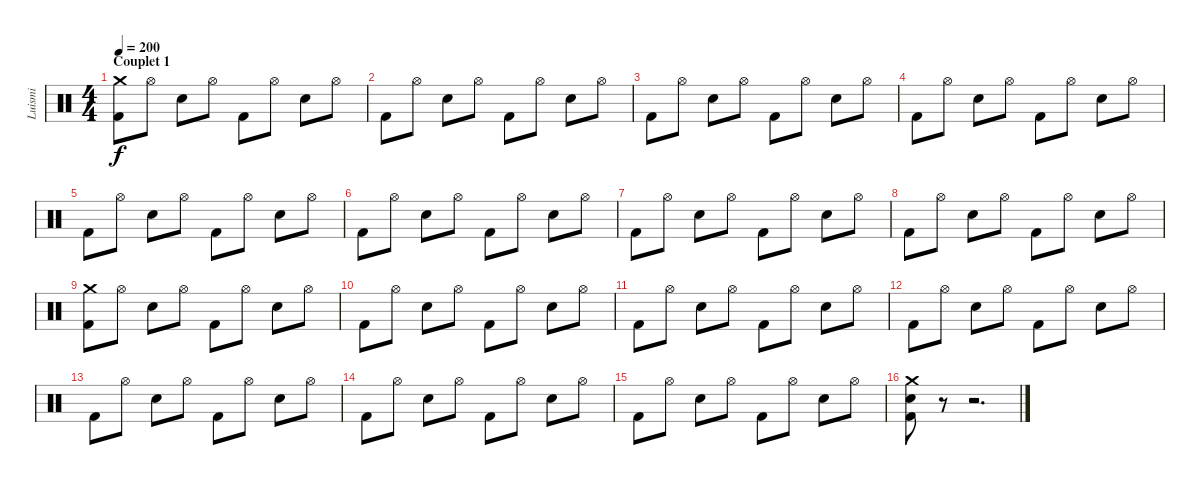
\track ("Luismi" "Luismi") {instrument percussion}
\staff {score}
\articulation defaults
\ts (4 4)
\section ("" "Couplet 1")
\tempo 200
\clef neutral
\ks c
("Crash medium (hit)" "Kick (hit) 2").8{dy f} "Hi-Hat (open)".8 "Snare (hit) 2".8 "Hi-Hat (open)".8 "Kick (hit) 2".8 "Hi-Hat (open)".8 "Snare (hit) 2".8 "Hi-Hat (open)".8 |
"Kick (hit) 2".8 "Hi-Hat (open)".8 "Snare (hit) 2".8 "Hi-Hat (open)".8 "Kick (hit) 2".8 "Hi-Hat (open)".8 "Snare (hit) 2".8 "Hi-Hat (open)".8 |
"Kick (hit) 2".8 "Hi-Hat (open)".8 "Snare (hit) 2".8 "Hi-Hat (open)".8 "Kick (hit) 2".8 "Hi-Hat (open)".8 "Snare (hit) 2".8 "Hi-Hat (open)".8 |
"Kick (hit) 2".8 "Hi-Hat (open)".8 "Snare (hit) 2".8 "Hi-Hat (open)".8 "Kick (hit) 2".8 "Hi-Hat (open)".8 "Snare (hit) 2".8 "Hi-Hat (open)".8 |
"Kick (hit) 2".8 "Hi-Hat (open)".8 "Snare (hit) 2".8 "Hi-Hat (open)".8 "Kick (hit) 2".8 "Hi-Hat (open)".8 "Snare (hit) 2".8 "Hi-Hat (open)".8 |
"Kick (hit) 2".8 "Hi-Hat (open)".8 "Snare (hit) 2".8 "Hi-Hat (open)".8 "Kick (hit) 2".8 "Hi-Hat (open)".8 "Snare (hit) 2".8 "Hi-Hat (open)".8 |
"Kick (hit) 2".8 "Hi-Hat (open)".8 "Snare (hit) 2".8 "Hi-Hat (open)".8 "Kick (hit) 2".8 "Hi-Hat (open)".8 "Snare (hit) 2".8 "Hi-Hat (open)".8 |
"Kick (hit) 2".8 "Hi-Hat (open)".8 "Snare (hit) 2".8 "Hi-Hat (open)".8 "Kick (hit) 2".8 "Hi-Hat (open)".8 "Snare (hit) 2".8 "Hi-Hat (open)".8 |
("Crash medium (hit)" "Kick (hit) 2").8 "Hi-Hat (open)".8 "Snare (hit) 2".8 "Hi-Hat (open)".8 "Kick (hit) 2".8 "Hi-Hat (open)".8 "Snare (hit) 2".8 "Hi-Hat (open)".8 |
"Kick (hit) 2".8 "Hi-Hat (open)".8 "Snare (hit) 2".8 "Hi-Hat (open)".8 "Kick (hit) 2".8 "Hi-Hat (open)".8 "Snare (hit) 2".8 "Hi-Hat (open)".8 |
"Kick (hit) 2".8 "Hi-Hat (open)".8 "Snare (hit) 2".8 "Hi-Hat (open)".8 "Kick (hit) 2".8 "Hi-Hat (open)".8 "Snare (hit) 2".8 "Hi-Hat (open)".8 |
"Kick (hit) 2".8 "Hi-Hat (open)".8 "Snare (hit) 2".8 "Hi-Hat (open)".8 "Kick (hit) 2".8 "Hi-Hat (open)".8 "Snare (hit) 2".8 "Hi-Hat (open)".8 |
"Kick (hit) 2".8 "Hi-Hat (open)".8 "Snare (hit) 2".8 "Hi-Hat (open)".8 "Kick (hit) 2".8 "Hi-Hat (open)".8 "Snare (hit) 2".8 "Hi-Hat (open)".8 |
"Kick (hit) 2".8 "Hi-Hat (open)".8 "Snare (hit) 2".8 "Hi-Hat (open)".8 "Kick (hit) 2".8 "Hi-Hat (open)".8 "Snare (hit) 2".8 "Hi-Hat (open)".8 |
"Kick (hit) 2".8 "Hi-Hat (open)".8 "Snare (hit) 2".8 "Hi-Hat (open)".8 "Kick (hit) 2".8 "Hi-Hat (open)".8 "Snare (hit) 2".8 "Hi-Hat (open)".8 |
("Crash medium (hit)" "Snare (hit) 2" "Kick (hit) 2").8 r.8 r.2{d}
